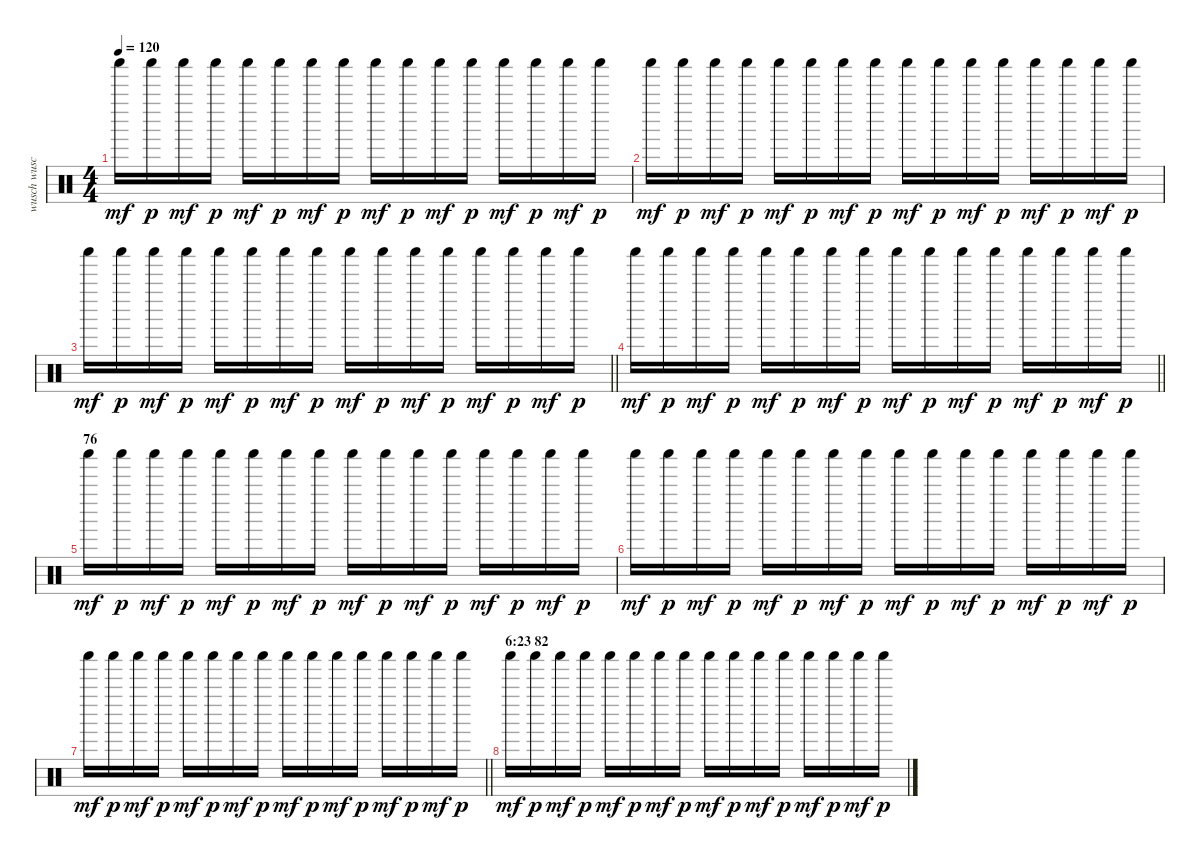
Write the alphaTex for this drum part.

\track ("wusch wusch" "wusch wusc") {instrument percussion}
\staff {score}
\articulation defaults
\ts (4 4)
\tempo 120
\clef neutral
\ks c "Shaker (hit)".16{dy mf} "Shaker (hit)".16{dy p} "Shaker (hit)".16{dy mf} "Shaker (hit)".16{dy p} "Shaker (hit)".16{dy mf} "Shaker (hit)".16{dy p} "Shaker (hit)".16{dy mf} "Shaker (hit)".16{dy p} "Shaker (hit)".16{dy mf} "Shaker (hit)".16{dy p} "Shaker (hit)".16{dy mf} "Shaker (hit)".16{dy p} "Shaker (hit)".16{dy mf} "Shaker (hit)".16{dy p} "Shaker (hit)".16{dy mf} "Shaker (hit)".16{dy p}
|
"Shaker (hit)".16{dy mf} "Shaker (hit)".16{dy p} "Shaker (hit)".16{dy mf} "Shaker (hit)".16{dy p} "Shaker (hit)".16{dy mf} "Shaker (hit)".16{dy p} "Shaker (hit)".16{dy mf} "Shaker (hit)".16{dy p} "Shaker (hit)".16{dy mf} "Shaker (hit)".16{dy p} "Shaker (hit)".16{dy mf} "Shaker (hit)".16{dy p} "Shaker (hit)".16{dy mf} "Shaker (hit)".16{dy p} "Shaker (hit)".16{dy mf} "Shaker (hit)".16{dy p} |
\barLineRight lightlight "Shaker (hit)".16{dy mf} "Shaker (hit)".16{dy p} "Shaker (hit)".16{dy mf} "Shaker (hit)".16{dy p} "Shaker (hit)".16{dy mf} "Shaker (hit)".16{dy p} "Shaker (hit)".16{dy mf} "Shaker (hit)".16{dy p} "Shaker (hit)".16{dy mf} "Shaker (hit)".16{dy p} "Shaker (hit)".16{dy mf} "Shaker (hit)".16{dy p} "Shaker (hit)".16{dy mf} "Shaker (hit)".16{dy p} "Shaker (hit)".16{dy mf} "Shaker (hit)".16{dy p}
|
\barLineRight lightlight "Shaker (hit)".16{dy mf} "Shaker (hit)".16{dy p} "Shaker (hit)".16{dy mf} "Shaker (hit)".16{dy p} "Shaker (hit)".16{dy mf} "Shaker (hit)".16{dy p} "Shaker (hit)".16{dy mf} "Shaker (hit)".16{dy p} "Shaker (hit)".16{dy mf} "Shaker (hit)".16{dy p} "Shaker (hit)".16{dy mf} "Shaker (hit)".16{dy p} "Shaker (hit)".16{dy mf} "Shaker (hit)".16{dy p} "Shaker (hit)".16{dy mf} "Shaker (hit)".16{dy p}
|
\section ("" "76")
"Shaker (hit)".16{dy mf} "Shaker (hit)".16{dy p} "Shaker (hit)".16{dy mf} "Shaker (hit)".16{dy p} "Shaker (hit)".16{dy mf} "Shaker (hit)".16{dy p} "Shaker (hit)".16{dy mf} "Shaker (hit)".16{dy p} "Shaker (hit)".16{dy mf} "Shaker (hit)".16{dy p} "Shaker (hit)".16{dy mf} "Shaker (hit)".16{dy p} "Shaker (hit)".16{dy mf} "Shaker (hit)".16{dy p} "Shaker (hit)".16{dy mf} "Shaker (hit)".16{dy p} |
"Shaker (hit)".16{dy mf} "Shaker (hit)".16{dy p} "Shaker (hit)".16{dy mf} "Shaker (hit)".16{dy p} "Shaker (hit)".16{dy mf} "Shaker (hit)".16{dy p} "Shaker (hit)".16{dy mf} "Shaker (hit)".16{dy p} "Shaker (hit)".16{dy mf} "Shaker (hit)".16{dy p} "Shaker (hit)".16{dy mf} "Shaker (hit)".16{dy p} "Shaker (hit)".16{dy mf} "Shaker (hit)".16{dy p} "Shaker (hit)".16{dy mf} "Shaker (hit)".16{dy p} |
\barLineRight lightlight "Shaker (hit)".16{dy mf} "Shaker (hit)".16{dy p} "Shaker (hit)".16{dy mf} "Shaker (hit)".16{dy p} "Shaker (hit)".16{dy mf} "Shaker (hit)".16{dy p} "Shaker (hit)".16{dy mf} "Shaker (hit)".16{dy p} "Shaker (hit)".16{dy mf} "Shaker (hit)".16{dy p} "Shaker (hit)".16{dy mf} "Shaker (hit)".16{dy p} "Shaker (hit)".16{dy mf} "Shaker (hit)".16{dy p} "Shaker (hit)".16{dy mf} "Shaker (hit)".16{dy p}
|
\section ("" "6:23 82")
"Shaker (hit)".16{dy mf} "Shaker (hit)".16{dy p} "Shaker (hit)".16{dy mf} "Shaker (hit)".16{dy p} "Shaker (hit)".16{dy mf} "Shaker (hit)".16{dy p} "Shaker (hit)".16{dy mf} "Shaker (hit)".16{dy p} "Shaker (hit)".16{dy mf} "Shaker (hit)".16{dy p} "Shaker (hit)".16{dy mf} "Shaker (hit)".16{dy p} "Shaker (hit)".16{dy mf} "Shaker (hit)".16{dy p} "Shaker (hit)".16{dy mf} "Shaker (hit)".16{dy p}
